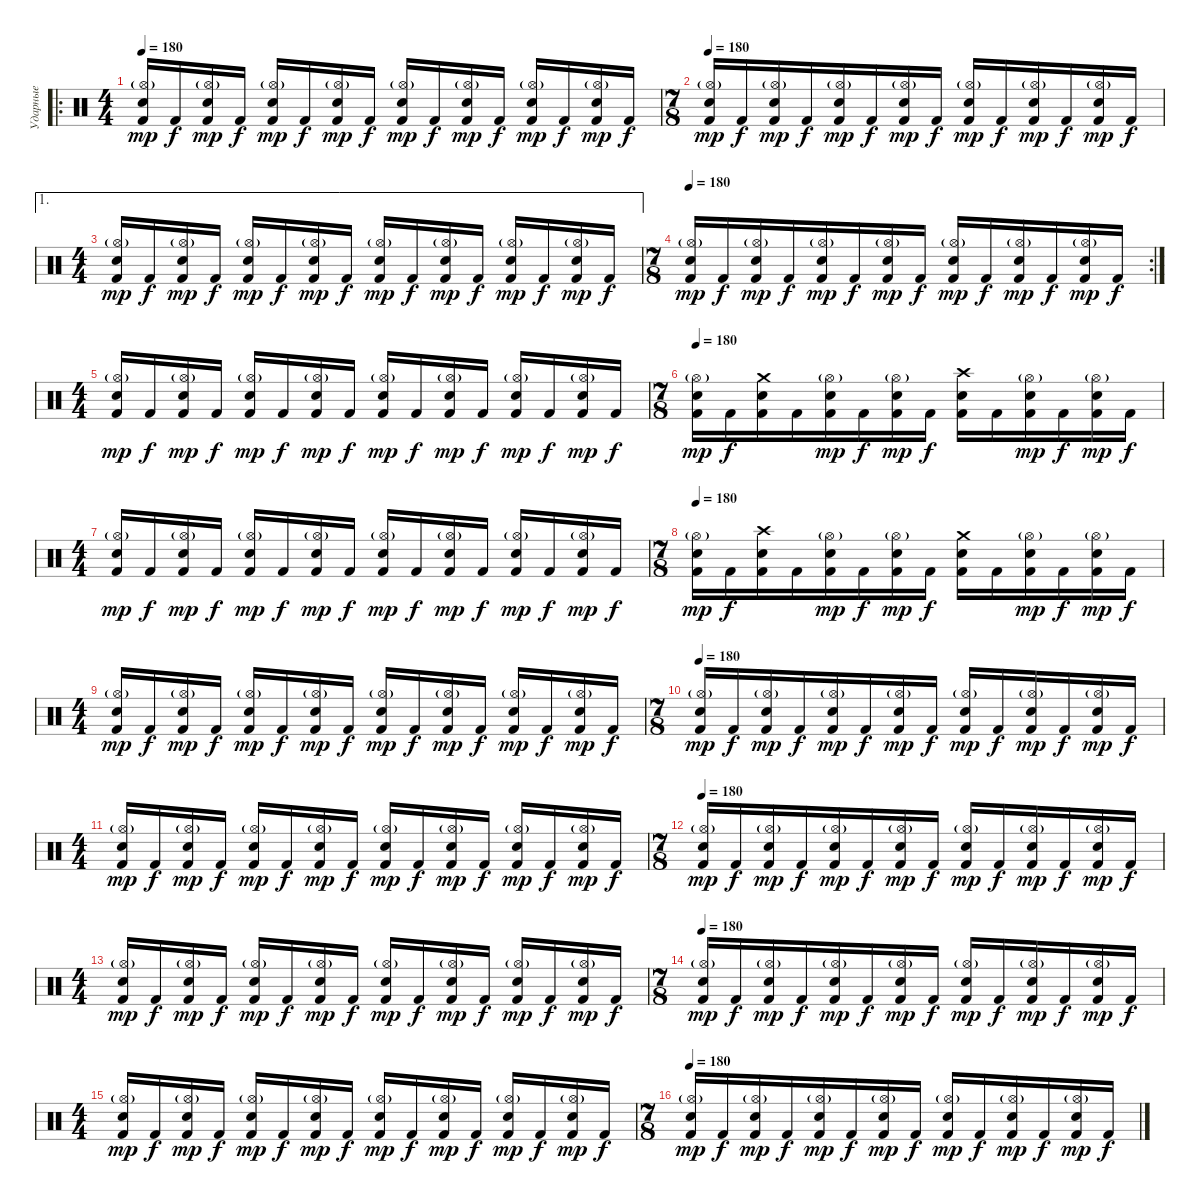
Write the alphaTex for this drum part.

\track ("Ударные" "Ударные") {instrument percussion}
\staff {score}
\articulation defaults
\ro
\ts (4 4)
\tempo 180
\clef neutral
\ks c
("Electric Snare (hit)" "Hi-Hat (open)"{g} "Kick (hit) 2").16{dy mp} "Kick (hit) 2".16{dy f} ("Electric Snare (hit)" "Hi-Hat (open)"{g} "Kick (hit) 2").16{dy mp} "Kick (hit) 2".16{dy f} ("Electric Snare (hit)" "Hi-Hat (open)"{g} "Kick (hit) 2").16{dy mp} "Kick (hit) 2".16{dy f} ("Electric Snare (hit)" "Hi-Hat (open)"{g} "Kick (hit) 2").16{dy mp} "Kick (hit) 2".16{dy f} ("Electric Snare (hit)" "Hi-Hat (open)"{g} "Kick (hit) 2").16{dy mp} "Kick (hit) 2".16{dy f} ("Electric Snare (hit)" "Hi-Hat (open)"{g} "Kick (hit) 2").16{dy mp} "Kick (hit) 2".16{dy f} ("Electric Snare (hit)" "Hi-Hat (open)"{g} "Kick (hit) 2").16{dy mp} "Kick (hit) 2".16{dy f} ("Electric Snare (hit)" "Hi-Hat (open)"{g} "Kick (hit) 2").16{dy mp} "Kick (hit) 2".16{dy f} |
\ts (7 8)
\tempo 180
("Electric Snare (hit)" "Hi-Hat (open)"{g} "Kick (hit) 2").16{dy mp} "Kick (hit) 2".16{dy f} ("Electric Snare (hit)" "Hi-Hat (open)"{g} "Kick (hit) 2").16{dy mp} "Kick (hit) 2".16{dy f} ("Electric Snare (hit)" "Hi-Hat (open)"{g} "Kick (hit) 2").16{dy mp} "Kick (hit) 2".16{dy f} ("Electric Snare (hit)" "Hi-Hat (open)"{g} "Kick (hit) 2").16{dy mp} "Kick (hit) 2".16{dy f} ("Electric Snare (hit)" "Hi-Hat (open)"{g} "Kick (hit) 2").16{dy mp} "Kick (hit) 2".16{dy f} ("Electric Snare (hit)" "Hi-Hat (open)"{g} "Kick (hit) 2").16{dy mp} "Kick (hit) 2".16{dy f} ("Electric Snare (hit)" "Hi-Hat (open)"{g} "Kick (hit) 2").16{dy mp} "Kick (hit) 2".16{dy f} |
\ae 1
\ts (4 4)
("Electric Snare (hit)" "Hi-Hat (open)"{g} "Kick (hit) 2").16{dy mp} "Kick (hit) 2".16{dy f} ("Electric Snare (hit)" "Hi-Hat (open)"{g} "Kick (hit) 2").16{dy mp} "Kick (hit) 2".16{dy f} ("Electric Snare (hit)" "Hi-Hat (open)"{g} "Kick (hit) 2").16{dy mp} "Kick (hit) 2".16{dy f} ("Electric Snare (hit)" "Hi-Hat (open)"{g} "Kick (hit) 2").16{dy mp} "Kick (hit) 2".16{dy f} ("Electric Snare (hit)" "Hi-Hat (open)"{g} "Kick (hit) 2").16{dy mp} "Kick (hit) 2".16{dy f} ("Electric Snare (hit)" "Hi-Hat (open)"{g} "Kick (hit) 2").16{dy mp} "Kick (hit) 2".16{dy f} ("Electric Snare (hit)" "Hi-Hat (open)"{g} "Kick (hit) 2").16{dy mp} "Kick (hit) 2".16{dy f} ("Electric Snare (hit)" "Hi-Hat (open)"{g} "Kick (hit) 2").16{dy mp} "Kick (hit) 2".16{dy f} |
\rc 2
\ts (7 8)
\tempo 180
("Electric Snare (hit)" "Hi-Hat (open)"{g} "Kick (hit) 2").16{dy mp} "Kick (hit) 2".16{dy f} ("Electric Snare (hit)" "Hi-Hat (open)"{g} "Kick (hit) 2").16{dy mp} "Kick (hit) 2".16{dy f} ("Electric Snare (hit)" "Hi-Hat (open)"{g} "Kick (hit) 2").16{dy mp} "Kick (hit) 2".16{dy f} ("Electric Snare (hit)" "Hi-Hat (open)"{g} "Kick (hit) 2").16{dy mp} "Kick (hit) 2".16{dy f} ("Electric Snare (hit)" "Hi-Hat (open)"{g} "Kick (hit) 2").16{dy mp} "Kick (hit) 2".16{dy f} ("Electric Snare (hit)" "Hi-Hat (open)"{g} "Kick (hit) 2").16{dy mp} "Kick (hit) 2".16{dy f} ("Electric Snare (hit)" "Hi-Hat (open)"{g} "Kick (hit) 2").16{dy mp} "Kick (hit) 2".16{dy f} |
\ts (4 4)
("Electric Snare (hit)" "Hi-Hat (open)"{g} "Kick (hit) 2").16{dy mp} "Kick (hit) 2".16{dy f} ("Electric Snare (hit)" "Hi-Hat (open)"{g} "Kick (hit) 2").16{dy mp} "Kick (hit) 2".16{dy f} ("Electric Snare (hit)" "Hi-Hat (open)"{g} "Kick (hit) 2").16{dy mp} "Kick (hit) 2".16{dy f} ("Electric Snare (hit)" "Hi-Hat (open)"{g} "Kick (hit) 2").16{dy mp} "Kick (hit) 2".16{dy f} ("Electric Snare (hit)" "Hi-Hat (open)"{g} "Kick (hit) 2").16{dy mp} "Kick (hit) 2".16{dy f} ("Electric Snare (hit)" "Hi-Hat (open)"{g} "Kick (hit) 2").16{dy mp} "Kick (hit) 2".16{dy f} ("Electric Snare (hit)" "Hi-Hat (open)"{g} "Kick (hit) 2").16{dy mp} "Kick (hit) 2".16{dy f} ("Electric Snare (hit)" "Hi-Hat (open)"{g} "Kick (hit) 2").16{dy mp} "Kick (hit) 2".16{dy f} |
\ts (7 8)
\tempo 180
("Electric Snare (hit)" "Hi-Hat (open)"{g} "Kick (hit) 2").16{dy mp} "Kick (hit) 2".16{dy f} ("Crash medium (hit)" "Electric Snare (hit)" "Kick (hit) 2").16 "Kick (hit) 2".16 ("Electric Snare (hit)" "Hi-Hat (open)"{g} "Kick (hit) 2").16{dy mp} "Kick (hit) 2".16{dy f} ("Electric Snare (hit)" "Hi-Hat (open)"{g} "Kick (hit) 2").16{dy mp} "Kick (hit) 2".16{dy f} ("Crash high (hit)" "Electric Snare (hit)" "Kick (hit) 2").16 "Kick (hit) 2".16 ("Electric Snare (hit)" "Hi-Hat (open)"{g} "Kick (hit) 2").16{dy mp} "Kick (hit) 2".16{dy f} ("Electric Snare (hit)" "Hi-Hat (open)"{g} "Kick (hit) 2").16{dy mp} "Kick (hit) 2".16{dy f} |
\ts (4 4)
("Electric Snare (hit)" "Hi-Hat (open)"{g} "Kick (hit) 2").16{dy mp} "Kick (hit) 2".16{dy f} ("Electric Snare (hit)" "Hi-Hat (open)"{g} "Kick (hit) 2").16{dy mp} "Kick (hit) 2".16{dy f} ("Electric Snare (hit)" "Hi-Hat (open)"{g} "Kick (hit) 2").16{dy mp} "Kick (hit) 2".16{dy f} ("Electric Snare (hit)" "Hi-Hat (open)"{g} "Kick (hit) 2").16{dy mp} "Kick (hit) 2".16{dy f} ("Electric Snare (hit)" "Hi-Hat (open)"{g} "Kick (hit) 2").16{dy mp} "Kick (hit) 2".16{dy f} ("Electric Snare (hit)" "Hi-Hat (open)"{g} "Kick (hit) 2").16{dy mp} "Kick (hit) 2".16{dy f} ("Electric Snare (hit)" "Hi-Hat (open)"{g} "Kick (hit) 2").16{dy mp} "Kick (hit) 2".16{dy f} ("Electric Snare (hit)" "Hi-Hat (open)"{g} "Kick (hit) 2").16{dy mp} "Kick (hit) 2".16{dy f} |
\ts (7 8)
\tempo 180
("Electric Snare (hit)" "Hi-Hat (open)"{g} "Kick (hit) 2").16{dy mp} "Kick (hit) 2".16{dy f} ("Crash high (hit)" "Electric Snare (hit)" "Kick (hit) 2").16 "Kick (hit) 2".16 ("Electric Snare (hit)" "Hi-Hat (open)"{g} "Kick (hit) 2").16{dy mp} "Kick (hit) 2".16{dy f} ("Electric Snare (hit)" "Hi-Hat (open)"{g} "Kick (hit) 2").16{dy mp} "Kick (hit) 2".16{dy f} ("Crash medium (hit)" "Electric Snare (hit)" "Kick (hit) 2").16 "Kick (hit) 2".16 ("Electric Snare (hit)" "Hi-Hat (open)"{g} "Kick (hit) 2").16{dy mp} "Kick (hit) 2".16{dy f} ("Electric Snare (hit)" "Hi-Hat (open)"{g} "Kick (hit) 2").16{dy mp} "Kick (hit) 2".16{dy f} |
\ts (4 4)
("Electric Snare (hit)" "Hi-Hat (open)"{g} "Kick (hit) 2").16{dy mp} "Kick (hit) 2".16{dy f} ("Electric Snare (hit)" "Hi-Hat (open)"{g} "Kick (hit) 2").16{dy mp} "Kick (hit) 2".16{dy f} ("Electric Snare (hit)" "Hi-Hat (open)"{g} "Kick (hit) 2").16{dy mp} "Kick (hit) 2".16{dy f} ("Electric Snare (hit)" "Hi-Hat (open)"{g} "Kick (hit) 2").16{dy mp} "Kick (hit) 2".16{dy f} ("Electric Snare (hit)" "Hi-Hat (open)"{g} "Kick (hit) 2").16{dy mp} "Kick (hit) 2".16{dy f} ("Electric Snare (hit)" "Hi-Hat (open)"{g} "Kick (hit) 2").16{dy mp} "Kick (hit) 2".16{dy f} ("Electric Snare (hit)" "Hi-Hat (open)"{g} "Kick (hit) 2").16{dy mp} "Kick (hit) 2".16{dy f} ("Electric Snare (hit)" "Hi-Hat (open)"{g} "Kick (hit) 2").16{dy mp} "Kick (hit) 2".16{dy f} |
\ts (7 8)
\tempo 180
("Electric Snare (hit)" "Hi-Hat (open)"{g} "Kick (hit) 2").16{dy mp} "Kick (hit) 2".16{dy f} ("Electric Snare (hit)" "Hi-Hat (open)"{g} "Kick (hit) 2").16{dy mp} "Kick (hit) 2".16{dy f} ("Electric Snare (hit)" "Hi-Hat (open)"{g} "Kick (hit) 2").16{dy mp} "Kick (hit) 2".16{dy f} ("Electric Snare (hit)" "Hi-Hat (open)"{g} "Kick (hit) 2").16{dy mp} "Kick (hit) 2".16{dy f} ("Electric Snare (hit)" "Hi-Hat (open)"{g} "Kick (hit) 2").16{dy mp} "Kick (hit) 2".16{dy f} ("Electric Snare (hit)" "Hi-Hat (open)"{g} "Kick (hit) 2").16{dy mp} "Kick (hit) 2".16{dy f} ("Electric Snare (hit)" "Hi-Hat (open)"{g} "Kick (hit) 2").16{dy mp} "Kick (hit) 2".16{dy f} |
\ts (4 4)
("Electric Snare (hit)" "Hi-Hat (open)"{g} "Kick (hit) 2").16{dy mp} "Kick (hit) 2".16{dy f} ("Electric Snare (hit)" "Hi-Hat (open)"{g} "Kick (hit) 2").16{dy mp} "Kick (hit) 2".16{dy f} ("Electric Snare (hit)" "Hi-Hat (open)"{g} "Kick (hit) 2").16{dy mp} "Kick (hit) 2".16{dy f} ("Electric Snare (hit)" "Hi-Hat (open)"{g} "Kick (hit) 2").16{dy mp} "Kick (hit) 2".16{dy f} ("Electric Snare (hit)" "Hi-Hat (open)"{g} "Kick (hit) 2").16{dy mp} "Kick (hit) 2".16{dy f} ("Electric Snare (hit)" "Hi-Hat (open)"{g} "Kick (hit) 2").16{dy mp} "Kick (hit) 2".16{dy f} ("Electric Snare (hit)" "Hi-Hat (open)"{g} "Kick (hit) 2").16{dy mp} "Kick (hit) 2".16{dy f} ("Electric Snare (hit)" "Hi-Hat (open)"{g} "Kick (hit) 2").16{dy mp} "Kick (hit) 2".16{dy f} |
\ts (7 8)
\tempo 180
("Electric Snare (hit)" "Hi-Hat (open)"{g} "Kick (hit) 2").16{dy mp} "Kick (hit) 2".16{dy f} ("Electric Snare (hit)" "Hi-Hat (open)"{g} "Kick (hit) 2").16{dy mp} "Kick (hit) 2".16{dy f} ("Electric Snare (hit)" "Hi-Hat (open)"{g} "Kick (hit) 2").16{dy mp} "Kick (hit) 2".16{dy f} ("Electric Snare (hit)" "Hi-Hat (open)"{g} "Kick (hit) 2").16{dy mp} "Kick (hit) 2".16{dy f} ("Electric Snare (hit)" "Hi-Hat (open)"{g} "Kick (hit) 2").16{dy mp} "Kick (hit) 2".16{dy f} ("Electric Snare (hit)" "Hi-Hat (open)"{g} "Kick (hit) 2").16{dy mp} "Kick (hit) 2".16{dy f} ("Electric Snare (hit)" "Hi-Hat (open)"{g} "Kick (hit) 2").16{dy mp} "Kick (hit) 2".16{dy f} |
\ts (4 4)
("Electric Snare (hit)" "Hi-Hat (open)"{g} "Kick (hit) 2").16{dy mp} "Kick (hit) 2".16{dy f} ("Electric Snare (hit)" "Hi-Hat (open)"{g} "Kick (hit) 2").16{dy mp} "Kick (hit) 2".16{dy f} ("Electric Snare (hit)" "Hi-Hat (open)"{g} "Kick (hit) 2").16{dy mp} "Kick (hit) 2".16{dy f} ("Electric Snare (hit)" "Hi-Hat (open)"{g} "Kick (hit) 2").16{dy mp} "Kick (hit) 2".16{dy f} ("Electric Snare (hit)" "Hi-Hat (open)"{g} "Kick (hit) 2").16{dy mp} "Kick (hit) 2".16{dy f} ("Electric Snare (hit)" "Hi-Hat (open)"{g} "Kick (hit) 2").16{dy mp} "Kick (hit) 2".16{dy f} ("Electric Snare (hit)" "Hi-Hat (open)"{g} "Kick (hit) 2").16{dy mp} "Kick (hit) 2".16{dy f} ("Electric Snare (hit)" "Hi-Hat (open)"{g} "Kick (hit) 2").16{dy mp} "Kick (hit) 2".16{dy f} |
\ts (7 8)
\tempo 180
("Electric Snare (hit)" "Hi-Hat (open)"{g} "Kick (hit) 2").16{dy mp} "Kick (hit) 2".16{dy f} ("Electric Snare (hit)" "Hi-Hat (open)"{g} "Kick (hit) 2").16{dy mp} "Kick (hit) 2".16{dy f} ("Electric Snare (hit)" "Hi-Hat (open)"{g} "Kick (hit) 2").16{dy mp} "Kick (hit) 2".16{dy f} ("Electric Snare (hit)" "Hi-Hat (open)"{g} "Kick (hit) 2").16{dy mp} "Kick (hit) 2".16{dy f} ("Electric Snare (hit)" "Hi-Hat (open)"{g} "Kick (hit) 2").16{dy mp} "Kick (hit) 2".16{dy f} ("Electric Snare (hit)" "Hi-Hat (open)"{g} "Kick (hit) 2").16{dy mp} "Kick (hit) 2".16{dy f} ("Electric Snare (hit)" "Hi-Hat (open)"{g} "Kick (hit) 2").16{dy mp} "Kick (hit) 2".16{dy f} |
\ts (4 4)
("Electric Snare (hit)" "Hi-Hat (open)"{g} "Kick (hit) 2").16{dy mp} "Kick (hit) 2".16{dy f} ("Electric Snare (hit)" "Hi-Hat (open)"{g} "Kick (hit) 2").16{dy mp} "Kick (hit) 2".16{dy f} ("Electric Snare (hit)" "Hi-Hat (open)"{g} "Kick (hit) 2").16{dy mp} "Kick (hit) 2".16{dy f} ("Electric Snare (hit)" "Hi-Hat (open)"{g} "Kick (hit) 2").16{dy mp} "Kick (hit) 2".16{dy f} ("Electric Snare (hit)" "Hi-Hat (open)"{g} "Kick (hit) 2").16{dy mp} "Kick (hit) 2".16{dy f} ("Electric Snare (hit)" "Hi-Hat (open)"{g} "Kick (hit) 2").16{dy mp} "Kick (hit) 2".16{dy f} ("Electric Snare (hit)" "Hi-Hat (open)"{g} "Kick (hit) 2").16{dy mp} "Kick (hit) 2".16{dy f} ("Electric Snare (hit)" "Hi-Hat (open)"{g} "Kick (hit) 2").16{dy mp} "Kick (hit) 2".16{dy f} |
\ts (7 8)
\tempo 180
("Electric Snare (hit)" "Hi-Hat (open)"{g} "Kick (hit) 2").16{dy mp} "Kick (hit) 2".16{dy f} ("Electric Snare (hit)" "Hi-Hat (open)"{g} "Kick (hit) 2").16{dy mp} "Kick (hit) 2".16{dy f} ("Electric Snare (hit)" "Hi-Hat (open)"{g} "Kick (hit) 2").16{dy mp} "Kick (hit) 2".16{dy f} ("Electric Snare (hit)" "Hi-Hat (open)"{g} "Kick (hit) 2").16{dy mp} "Kick (hit) 2".16{dy f} ("Electric Snare (hit)" "Hi-Hat (open)"{g} "Kick (hit) 2").16{dy mp} "Kick (hit) 2".16{dy f} ("Electric Snare (hit)" "Hi-Hat (open)"{g} "Kick (hit) 2").16{dy mp} "Kick (hit) 2".16{dy f} ("Electric Snare (hit)" "Hi-Hat (open)"{g} "Kick (hit) 2").16{dy mp} "Kick (hit) 2".16{dy f}
